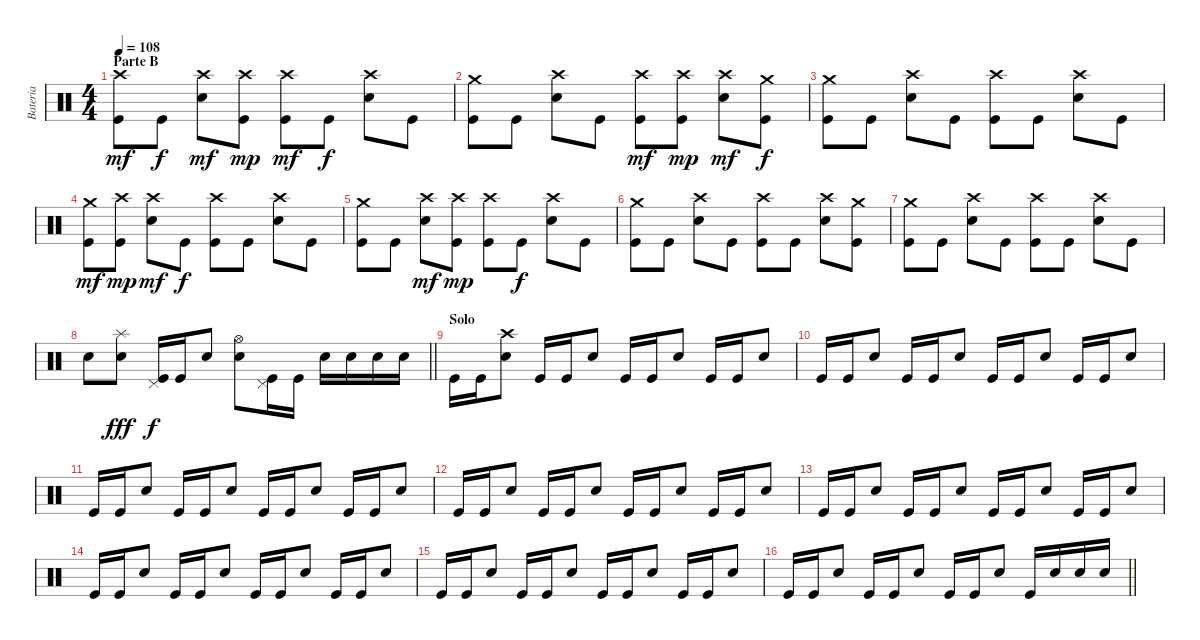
\track ("Bateria" "Bateria") {instrument percussion}
\staff {score}
\articulation defaults
\ts (4 4)
\section ("" "Parte B")
\tempo 108
\clef neutral
\ks c
("Crash high (hit)" "Kick (hit)").8{dy mf} "Kick (hit)".8{dy f} ("Crash high (hit)" "Snare (hit) 2").8{dy mf} ("Crash high (hit)" "Kick (hit)").8{dy mp} ("Crash high (hit)" "Kick (hit)").8{dy mf} "Kick (hit)".8{dy f} ("Crash high (hit)" "Snare (hit) 2").8 "Kick (hit)".8 |
("Crash medium (hit)" "Kick (hit)").8 "Kick (hit)".8 ("Crash high (hit)" "Snare (hit) 2").8 "Kick (hit)".8 ("Crash high (hit)" "Kick (hit)").8{dy mf} ("Crash high (hit)" "Kick (hit)").8{dy mp} ("Crash high (hit)" "Snare (hit) 2").8{dy mf} ("Crash medium (hit)" "Kick (hit)").8{dy f} |
("Crash medium (hit)" "Kick (hit)").8 "Kick (hit)".8 ("Crash high (hit)" "Snare (hit) 2").8 "Kick (hit)".8 ("Crash high (hit)" "Kick (hit)").8 "Kick (hit)".8 ("Crash high (hit)" "Snare (hit) 2").8 "Kick (hit)".8 |
("Crash medium (hit)" "Kick (hit)").8{dy mf} ("Crash high (hit)" "Kick (hit)").8{dy mp} ("Crash high (hit)" "Snare (hit) 2").8{dy mf} "Kick (hit)".8{dy f} ("Crash high (hit)" "Kick (hit)").8 "Kick (hit)".8 ("Crash high (hit)" "Snare (hit) 2").8 "Kick (hit)".8 |
("Crash medium (hit)" "Kick (hit)").8 "Kick (hit)".8 ("Crash high (hit)" "Snare (hit) 2").8{dy mf} ("Crash high (hit)" "Kick (hit)").8{dy mp} ("Crash high (hit)" "Kick (hit)").8 "Kick (hit)".8{dy f} ("Crash high (hit)" "Snare (hit) 2").8 "Kick (hit)".8 |
("Crash medium (hit)" "Kick (hit)").8 "Kick (hit)".8 ("Crash high (hit)" "Snare (hit) 2").8 "Kick (hit)".8 ("Crash high (hit)" "Kick (hit)").8 "Kick (hit)".8 ("Crash high (hit)" "Snare (hit) 2").8 ("Crash medium (hit)" "Kick (hit)").8 |
("Crash medium (hit)" "Kick (hit)").8 "Kick (hit)".8 ("Crash high (hit)" "Snare (hit) 2").8 "Kick (hit)".8 ("Crash high (hit)" "Kick (hit)").8 "Kick (hit)".8 ("Crash high (hit)" "Snare (hit) 2").8 "Kick (hit)".8 |
\barLineRight lightlight "Snare (hit) 2".8
("Splash (hit)" "Snare (hit) 2").8{dy fff} ("Pedal Hi-Hat (hit)" "Kick (hit)").16{dy f} "Kick (hit)".16 "Snare (hit) 2".8 ("Hi-Hat (open)" "Snare (hit) 2").8 ("Pedal Hi-Hat (hit)" "Kick (hit)").16 "Kick (hit)".16 "Snare (hit) 2".16 "Snare (hit) 2".16 "Snare (hit) 2".16 "Snare (hit) 2".16 |
\section ("" "Solo")
"Kick (hit)".16 "Kick (hit)".16 ("Crash high (hit)" "Snare (hit) 2").8 "Kick (hit)".16 "Kick (hit)".16 "Snare (hit) 2".8 "Kick (hit)".16 "Kick (hit)".16 "Snare (hit) 2".8 "Kick (hit)".16 "Kick (hit)".16 "Snare (hit) 2".8 |
"Kick (hit)".16 "Kick (hit)".16 "Snare (hit) 2".8 "Kick (hit)".16 "Kick (hit)".16 "Snare (hit) 2".8 "Kick (hit)".16 "Kick (hit)".16 "Snare (hit) 2".8 "Kick (hit)".16 "Kick (hit)".16 "Snare (hit) 2".8 |
"Kick (hit)".16 "Kick (hit)".16 "Snare (hit) 2".8 "Kick (hit)".16 "Kick (hit)".16 "Snare (hit) 2".8 "Kick (hit)".16 "Kick (hit)".16 "Snare (hit) 2".8 "Kick (hit)".16 "Kick (hit)".16 "Snare (hit) 2".8 |
"Kick (hit)".16 "Kick (hit)".16 "Snare (hit) 2".8 "Kick (hit)".16 "Kick (hit)".16 "Snare (hit) 2".8 "Kick (hit)".16 "Kick (hit)".16 "Snare (hit) 2".8 "Kick (hit)".16 "Kick (hit)".16 "Snare (hit) 2".8 |
"Kick (hit)".16 "Kick (hit)".16 "Snare (hit) 2".8 "Kick (hit)".16 "Kick (hit)".16 "Snare (hit) 2".8 "Kick (hit)".16 "Kick (hit)".16 "Snare (hit) 2".8 "Kick (hit)".16 "Kick (hit)".16 "Snare (hit) 2".8 |
"Kick (hit)".16 "Kick (hit)".16 "Snare (hit) 2".8 "Kick (hit)".16 "Kick (hit)".16 "Snare (hit) 2".8 "Kick (hit)".16 "Kick (hit)".16 "Snare (hit) 2".8 "Kick (hit)".16 "Kick (hit)".16 "Snare (hit) 2".8 |
"Kick (hit)".16 "Kick (hit)".16 "Snare (hit) 2".8 "Kick (hit)".16 "Kick (hit)".16 "Snare (hit) 2".8 "Kick (hit)".16 "Kick (hit)".16 "Snare (hit) 2".8 "Kick (hit)".16 "Kick (hit)".16 "Snare (hit) 2".8 |
\barLineRight lightlight "Kick (hit)".16 "Kick (hit)".16 "Snare (hit) 2".8 "Kick (hit)".16 "Kick (hit)".16 "Snare (hit) 2".8 "Kick (hit)".16 "Kick (hit)".16 "Snare (hit) 2".8 "Kick (hit)".16 "Snare (hit) 2".16 "Snare (hit) 2".16 "Snare (hit) 2".16
